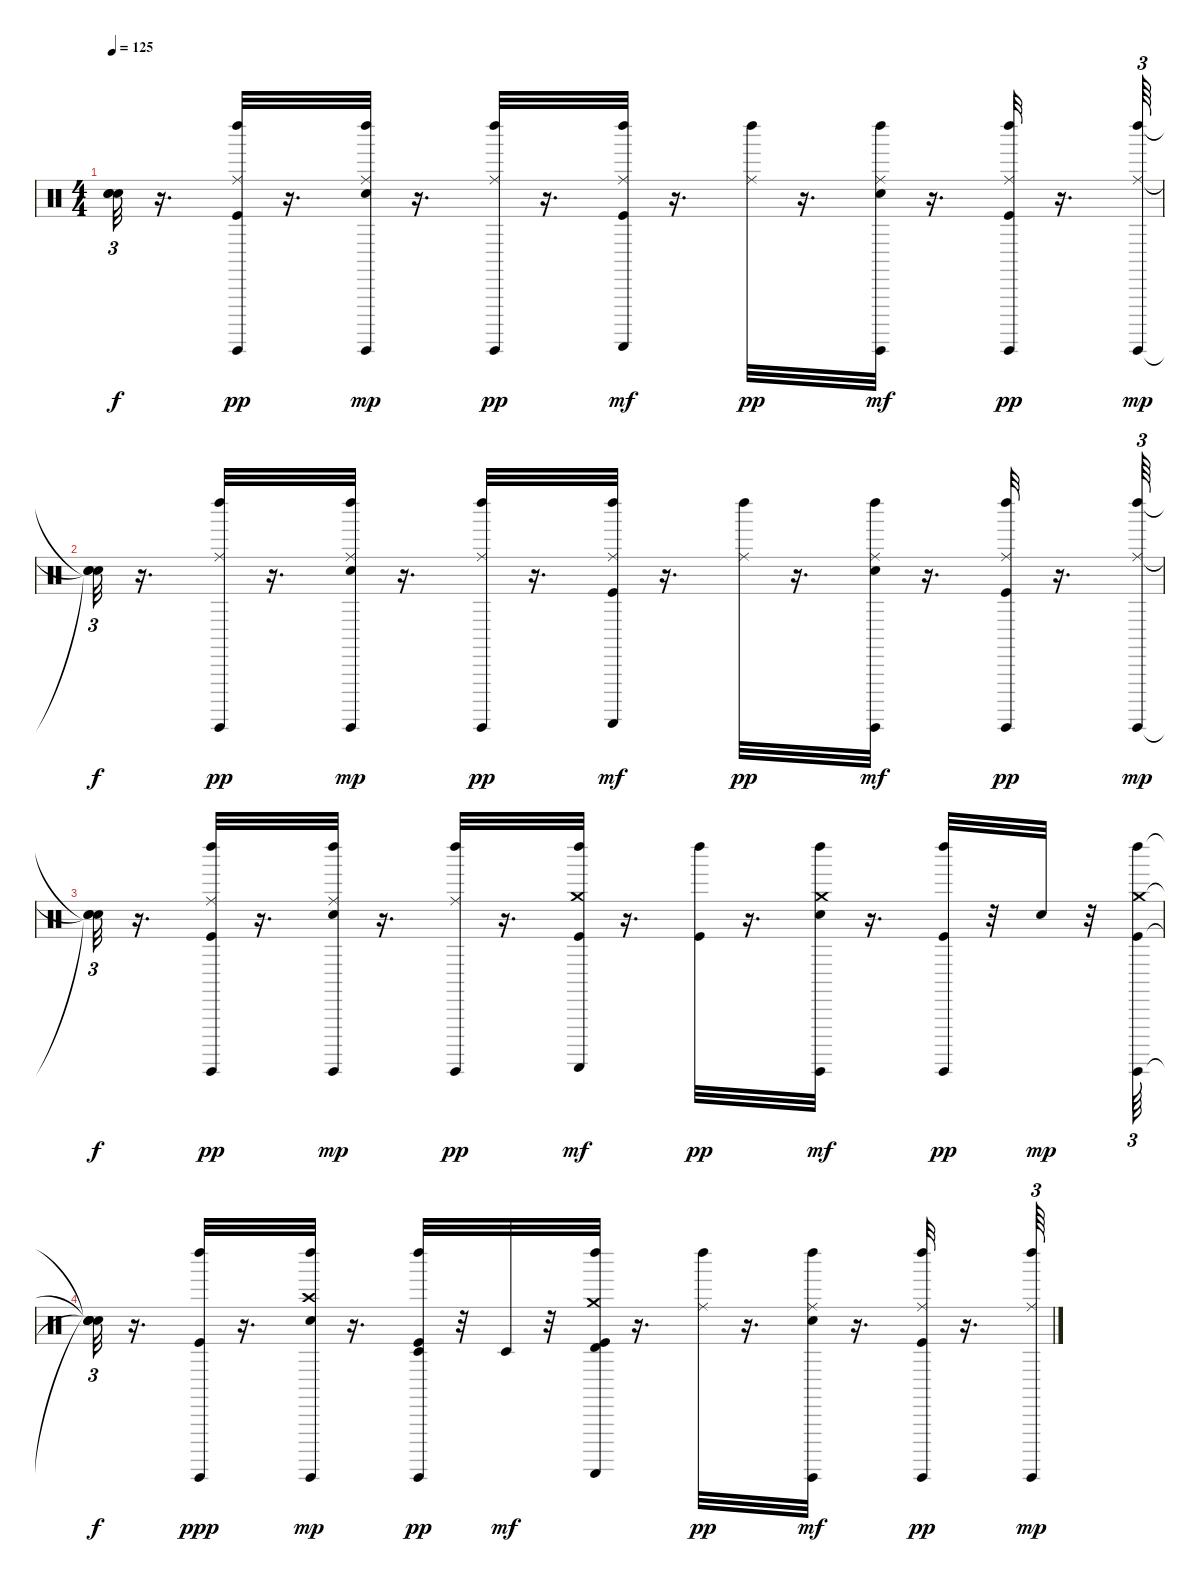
\track "" {instrument percussion}
\staff {score}
\articulation defaults
\ts (4 4)
\tempo 125
\clef neutral
\ks c
("Snare (hit)"{t} "Snare (hit)"{t} "Snare (hit)"{t}).32{tu (3 2) dy f} r.16{d} ("Kick (hit)" "Ride (middle)" "Left Maraca (hit)" "Guiro (hit)").32{dy pp} r.16{d} ("Ride (middle)" "Left Maraca (hit)" "Electric Snare (hit)" "Guiro (hit)").32{dy mp} r.16{d} ("Ride (middle)" "Left Maraca (hit)" "Guiro (hit)").32{dy pp} r.16{d} ("Kick (hit)" "Left Maraca (hit)" "Ride (middle)" "Guiro (scrap-return)").32{dy mf} r.16{d} ("Ride (middle)" "Left Maraca (hit)").32{dy pp} r.16{d} ("Ride (middle)" "Left Maraca (hit)" "Electric Snare (hit)" "Guiro (hit)").32{dy mf} r.16{d} ("Ride (middle)" "Kick (hit)" "Left Maraca (hit)" "Guiro (hit)").32{dy pp} r.16{d} ("Left Maraca (hit)" "Ride (middle)" "Guiro (hit)").64{tu (3 2) dy mp} |
("Snare (hit)"{t} "Snare (hit)"{t} "Snare (hit)"{t}).32{tu (3 2) dy f} r.16{d} ("Left Maraca (hit)" "Ride (middle)" "Guiro (hit)").32{dy pp} r.16{d} ("Ride (middle)" "Left Maraca (hit)" "Electric Snare (hit)" "Guiro (hit)").32{dy mp} r.16{d} ("Left Maraca (hit)" "Ride (middle)" "Guiro (hit)").32{dy pp} r.16{d} ("Ride (middle)" "Kick (hit)" "Left Maraca (hit)" "Guiro (scrap-return)").32{dy mf} r.16{d} ("Ride (middle)" "Left Maraca (hit)").32{dy pp} r.16{d} ("Left Maraca (hit)" "Ride (middle)" "Electric Snare (hit)" "Guiro (hit)").32{dy mf} r.16{d} ("Kick (hit)" "Left Maraca (hit)" "Ride (middle)" "Guiro (hit)").32{dy pp} r.16{d} ("Left Maraca (hit)" "Ride (middle)" "Guiro (hit)").64{tu (3 2) dy mp} |
("Snare (hit)"{t} "Snare (hit)"{t} "Snare (hit)"{t}).32{tu (3 2) dy f} r.16{d} ("Kick (hit)" "Left Maraca (hit)" "Ride (middle)" "Guiro (hit)").32{dy pp} r.16{d} ("Left Maraca (hit)" "Ride (middle)" "Electric Snare (hit)" "Guiro (hit)").32{dy mp} r.16{d} ("Left Maraca (hit)" "Ride (middle)" "Guiro (hit)").32{dy pp} r.16{d} ("Kick (hit)" "Left Maraca (hit)" "Crash medium (hit)" "Guiro (scrap-return)").32{dy mf} r.16{d} ("Kick (hit)" "Left Maraca (hit)").32{dy pp} r.16{d} ("Crash medium (hit)" "Left Maraca (hit)" "Electric Snare (hit)" "Guiro (hit)").32{dy mf} r.16{d} ("Kick (hit)" "Left Maraca (hit)" "Guiro (hit)").32{dy pp} r.32 "Electric Snare (hit)".32{dy mp} r.32 ("Kick (hit)" "Crash medium (hit)" "Left Maraca (hit)" "Guiro (hit)").64{tu (3 2)} |
("Snare (hit)"{t} "Snare (hit)"{t} "Snare (hit)"{t} "Snare (hit)"{t}).32{tu (3 2) dy f} r.16{d} ("Left Maraca (hit)" "Kick (hit)" "Guiro (hit)").32{dy ppp} r.16{d} ("Electric Snare (hit)" "Left Maraca (hit)" "Crash high (hit)" "Guiro (hit)").32{dy mp} r.16{d} ("Timbale low (hit)" "Kick (hit)" "Left Maraca (hit)" "Guiro (hit)").32{dy pp} r.32 "Timbale low (hit)".32{dy mf} r.32 ("Left Maraca (hit)" "Kick (hit)" "Crash medium (hit)" "Timbale high (hit)" "Guiro (scrap-return)").32 r.16{d} ("Left Maraca (hit)" "Ride (middle)").32{dy pp} r.16{d} ("Electric Snare (hit)" "Left Maraca (hit)" "Ride (middle)" "Guiro (hit)").32{dy mf} r.16{d} ("Left Maraca (hit)" "Ride (middle)" "Kick (hit)" "Guiro (hit)").32{dy pp} r.16{d} ("Left Maraca (hit)" "Ride (middle)" "Guiro (hit)").64{tu (3 2) dy mp}
